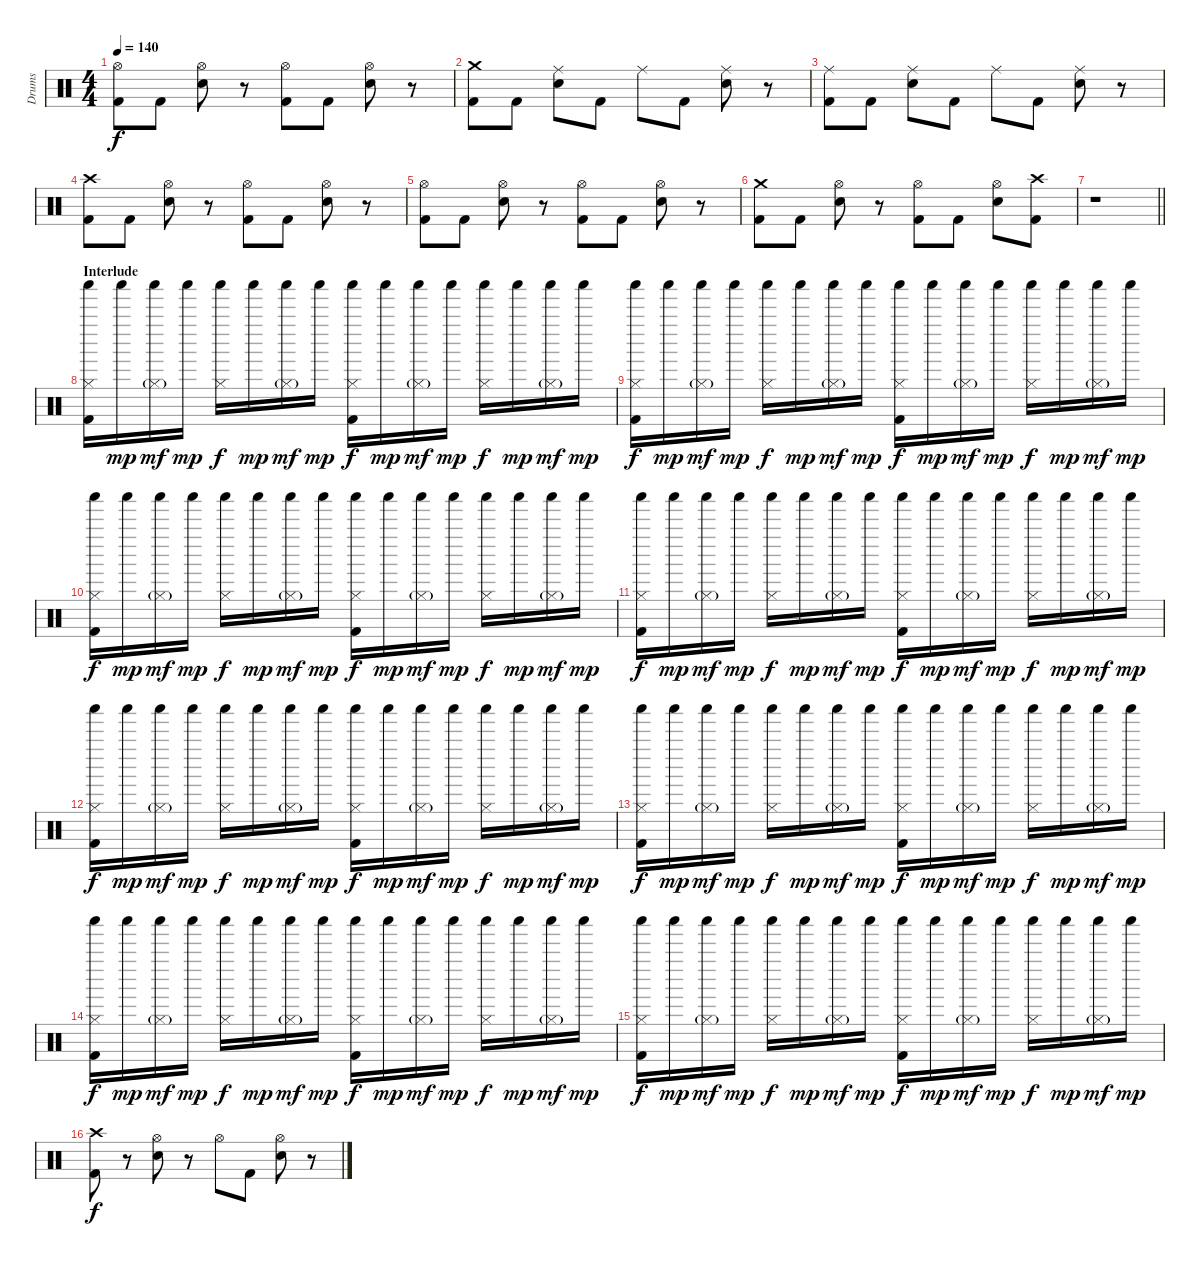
\track ("Drums" "Drums") {instrument percussion}
\staff {score}
\articulation defaults
\ts (4 4)
\tempo 140
\clef neutral
\ks c
("Hi-Hat (open)" "Kick (hit) 2").8{dy f} "Kick (hit) 2".8 ("Hi-Hat (open)" "Electric Snare (hit)").8 r.8 ("Hi-Hat (open)" "Kick (hit) 2").8 "Kick (hit) 2".8 ("Hi-Hat (open)" "Electric Snare (hit)").8 r.8 |
("Crash medium (hit)" "Kick (hit) 2").8 "Kick (hit) 2".8 ("Ride (middle)" "Electric Snare (hit)").8 "Kick (hit) 2".8 "Ride (middle)".8 "Kick (hit) 2".8 ("Ride (middle)" "Electric Snare (hit)").8 r.8 |
("Ride (middle)" "Kick (hit) 2").8 "Kick (hit) 2".8 ("Ride (middle)" "Electric Snare (hit)").8 "Kick (hit) 2".8 "Ride (middle)".8 "Kick (hit) 2".8 ("Ride (middle)" "Electric Snare (hit)").8 r.8 |
("Crash high (hit)" "Kick (hit) 2").8 "Kick (hit) 2".8 ("Hi-Hat (open)" "Electric Snare (hit)").8 r.8 ("Hi-Hat (open)" "Kick (hit) 2").8 "Kick (hit) 2".8 ("Hi-Hat (open)" "Electric Snare (hit)").8 r.8 |
("Hi-Hat (open)" "Kick (hit) 2").8 "Kick (hit) 2".8 ("Hi-Hat (open)" "Electric Snare (hit)").8 r.8 ("Hi-Hat (open)" "Kick (hit) 2").8 "Kick (hit) 2".8 ("Hi-Hat (open)" "Electric Snare (hit)").8 r.8 |
("Crash medium (hit)" "Kick (hit) 2").8 "Kick (hit) 2".8 ("Hi-Hat (open)" "Electric Snare (hit)").8 r.8 ("Hi-Hat (open)" "Kick (hit) 2").8 "Kick (hit) 2".8 ("Hi-Hat (open)" "Electric Snare (hit)").8 ("Crash high (hit)" "Kick (hit) 2").8 |
\barLineRight lightlight
r.1 |
\section ("" "Interlude")
("Hi-Hat (closed)" "Shaker (hit)" "Kick (hit) 2").16 "Shaker (hit)".16{dy mp} ("Hi-Hat (closed)"{g} "Shaker (hit)").16{dy mf} "Shaker (hit)".16{dy mp} ("Hi-Hat (closed)" "Shaker (hit)").16{dy f} "Shaker (hit)".16{dy mp} ("Hi-Hat (closed)"{g} "Shaker (hit)").16{dy mf} "Shaker (hit)".16{dy mp} ("Hi-Hat (closed)" "Shaker (hit)" "Kick (hit) 2").16{dy f} "Shaker (hit)".16{dy mp} ("Hi-Hat (closed)"{g} "Shaker (hit)").16{dy mf} "Shaker (hit)".16{dy mp} ("Hi-Hat (closed)" "Shaker (hit)").16{dy f} "Shaker (hit)".16{dy mp} ("Hi-Hat (closed)"{g} "Shaker (hit)").16{dy mf} "Shaker (hit)".16{dy mp} |
("Hi-Hat (closed)" "Shaker (hit)" "Kick (hit) 2").16{dy f} "Shaker (hit)".16{dy mp} ("Hi-Hat (closed)"{g} "Shaker (hit)").16{dy mf} "Shaker (hit)".16{dy mp} ("Hi-Hat (closed)" "Shaker (hit)").16{dy f} "Shaker (hit)".16{dy mp} ("Hi-Hat (closed)"{g} "Shaker (hit)").16{dy mf} "Shaker (hit)".16{dy mp} ("Hi-Hat (closed)" "Shaker (hit)" "Kick (hit) 2").16{dy f} "Shaker (hit)".16{dy mp} ("Hi-Hat (closed)"{g} "Shaker (hit)").16{dy mf} "Shaker (hit)".16{dy mp} ("Hi-Hat (closed)" "Shaker (hit)").16{dy f} "Shaker (hit)".16{dy mp} ("Hi-Hat (closed)"{g} "Shaker (hit)").16{dy mf} "Shaker (hit)".16{dy mp} |
("Hi-Hat (closed)" "Shaker (hit)" "Kick (hit) 2").16{dy f} "Shaker (hit)".16{dy mp} ("Hi-Hat (closed)"{g} "Shaker (hit)").16{dy mf} "Shaker (hit)".16{dy mp} ("Hi-Hat (closed)" "Shaker (hit)").16{dy f} "Shaker (hit)".16{dy mp} ("Hi-Hat (closed)"{g} "Shaker (hit)").16{dy mf} "Shaker (hit)".16{dy mp} ("Hi-Hat (closed)" "Shaker (hit)" "Kick (hit) 2").16{dy f} "Shaker (hit)".16{dy mp} ("Hi-Hat (closed)"{g} "Shaker (hit)").16{dy mf} "Shaker (hit)".16{dy mp} ("Hi-Hat (closed)" "Shaker (hit)").16{dy f} "Shaker (hit)".16{dy mp} ("Hi-Hat (closed)"{g} "Shaker (hit)").16{dy mf} "Shaker (hit)".16{dy mp} |
("Hi-Hat (closed)" "Shaker (hit)" "Kick (hit) 2").16{dy f} "Shaker (hit)".16{dy mp} ("Hi-Hat (closed)"{g} "Shaker (hit)").16{dy mf} "Shaker (hit)".16{dy mp} ("Hi-Hat (closed)" "Shaker (hit)").16{dy f} "Shaker (hit)".16{dy mp} ("Hi-Hat (closed)"{g} "Shaker (hit)").16{dy mf} "Shaker (hit)".16{dy mp} ("Hi-Hat (closed)" "Shaker (hit)" "Kick (hit) 2").16{dy f} "Shaker (hit)".16{dy mp} ("Hi-Hat (closed)"{g} "Shaker (hit)").16{dy mf} "Shaker (hit)".16{dy mp} ("Hi-Hat (closed)" "Shaker (hit)").16{dy f} "Shaker (hit)".16{dy mp} ("Hi-Hat (closed)"{g} "Shaker (hit)").16{dy mf} "Shaker (hit)".16{dy mp} |
("Hi-Hat (closed)" "Shaker (hit)" "Kick (hit) 2").16{dy f} "Shaker (hit)".16{dy mp} ("Hi-Hat (closed)"{g} "Shaker (hit)").16{dy mf} "Shaker (hit)".16{dy mp} ("Hi-Hat (closed)" "Shaker (hit)").16{dy f} "Shaker (hit)".16{dy mp} ("Hi-Hat (closed)"{g} "Shaker (hit)").16{dy mf} "Shaker (hit)".16{dy mp} ("Hi-Hat (closed)" "Shaker (hit)" "Kick (hit) 2").16{dy f} "Shaker (hit)".16{dy mp} ("Hi-Hat (closed)"{g} "Shaker (hit)").16{dy mf} "Shaker (hit)".16{dy mp} ("Hi-Hat (closed)" "Shaker (hit)").16{dy f} "Shaker (hit)".16{dy mp} ("Hi-Hat (closed)"{g} "Shaker (hit)").16{dy mf} "Shaker (hit)".16{dy mp} |
("Hi-Hat (closed)" "Shaker (hit)" "Kick (hit) 2").16{dy f} "Shaker (hit)".16{dy mp} ("Hi-Hat (closed)"{g} "Shaker (hit)").16{dy mf} "Shaker (hit)".16{dy mp} ("Hi-Hat (closed)" "Shaker (hit)").16{dy f} "Shaker (hit)".16{dy mp} ("Hi-Hat (closed)"{g} "Shaker (hit)").16{dy mf} "Shaker (hit)".16{dy mp} ("Hi-Hat (closed)" "Shaker (hit)" "Kick (hit) 2").16{dy f} "Shaker (hit)".16{dy mp} ("Hi-Hat (closed)"{g} "Shaker (hit)").16{dy mf} "Shaker (hit)".16{dy mp} ("Hi-Hat (closed)" "Shaker (hit)").16{dy f} "Shaker (hit)".16{dy mp} ("Hi-Hat (closed)"{g} "Shaker (hit)").16{dy mf} "Shaker (hit)".16{dy mp} |
("Hi-Hat (closed)" "Shaker (hit)" "Kick (hit) 2").16{dy f} "Shaker (hit)".16{dy mp} ("Hi-Hat (closed)"{g} "Shaker (hit)").16{dy mf} "Shaker (hit)".16{dy mp} ("Hi-Hat (closed)" "Shaker (hit)").16{dy f} "Shaker (hit)".16{dy mp} ("Hi-Hat (closed)"{g} "Shaker (hit)").16{dy mf} "Shaker (hit)".16{dy mp} ("Hi-Hat (closed)" "Shaker (hit)" "Kick (hit) 2").16{dy f} "Shaker (hit)".16{dy mp} ("Hi-Hat (closed)"{g} "Shaker (hit)").16{dy mf} "Shaker (hit)".16{dy mp} ("Hi-Hat (closed)" "Shaker (hit)").16{dy f} "Shaker (hit)".16{dy mp} ("Hi-Hat (closed)"{g} "Shaker (hit)").16{dy mf} "Shaker (hit)".16{dy mp} |
("Hi-Hat (closed)" "Shaker (hit)" "Kick (hit) 2").16{dy f} "Shaker (hit)".16{dy mp} ("Hi-Hat (closed)"{g} "Shaker (hit)").16{dy mf} "Shaker (hit)".16{dy mp} ("Hi-Hat (closed)" "Shaker (hit)").16{dy f} "Shaker (hit)".16{dy mp} ("Hi-Hat (closed)"{g} "Shaker (hit)").16{dy mf} "Shaker (hit)".16{dy mp} ("Hi-Hat (closed)" "Shaker (hit)" "Kick (hit) 2").16{dy f} "Shaker (hit)".16{dy mp} ("Hi-Hat (closed)"{g} "Shaker (hit)").16{dy mf} "Shaker (hit)".16{dy mp} ("Hi-Hat (closed)" "Shaker (hit)").16{dy f} "Shaker (hit)".16{dy mp} ("Hi-Hat (closed)"{g} "Shaker (hit)").16{dy mf} "Shaker (hit)".16{dy mp} |
("Crash high (hit)" "Kick (hit) 2").8{dy f} r.8 ("Hi-Hat (open)" "Electric Snare (hit)").8 r.8 "Hi-Hat (open)".8 "Kick (hit) 2".8 ("Hi-Hat (open)" "Electric Snare (hit)").8 r.8
